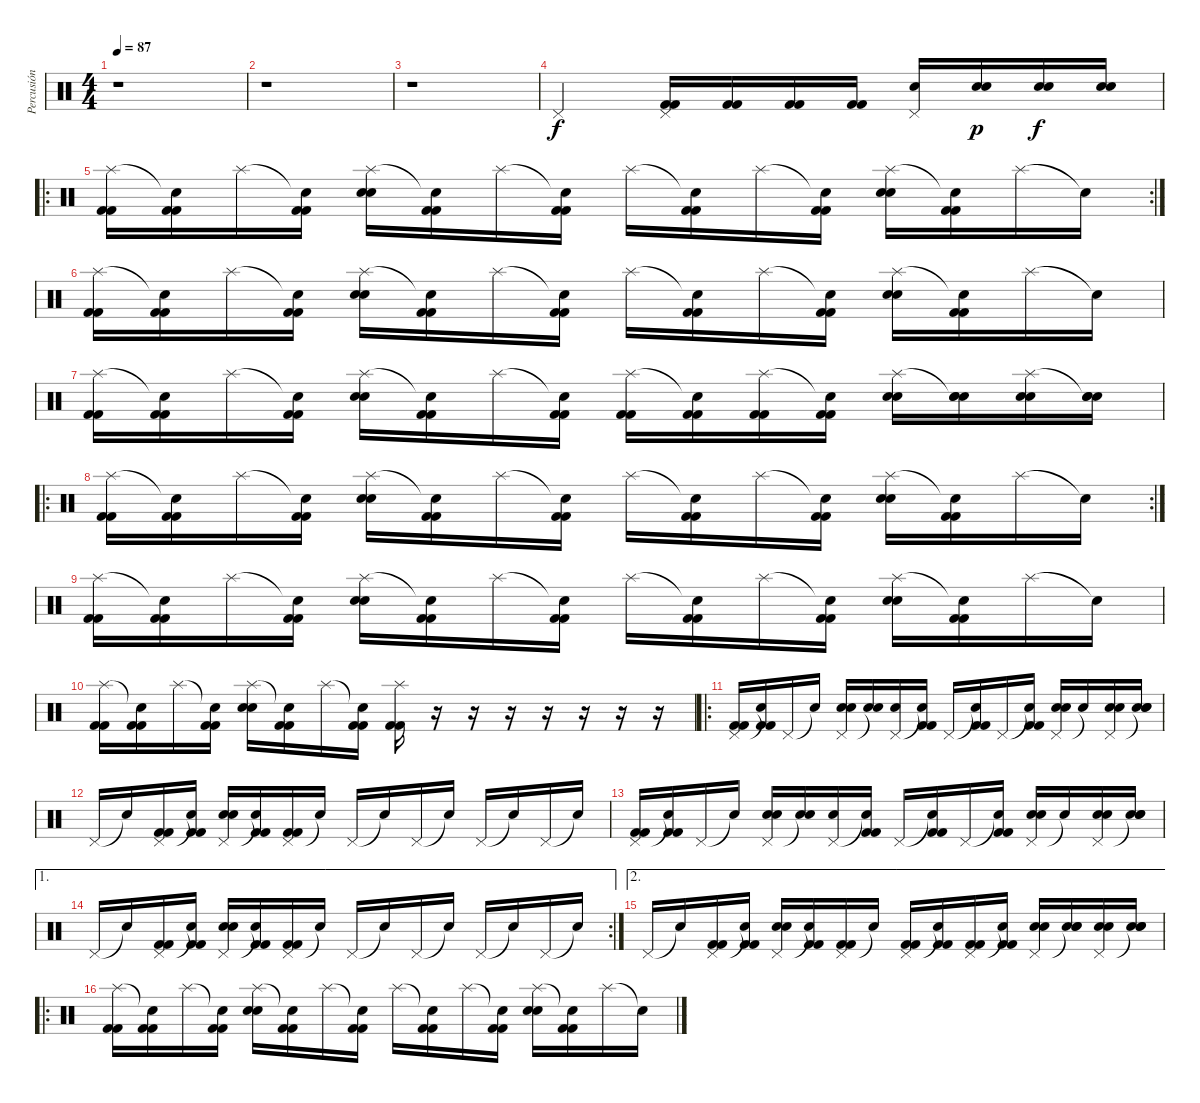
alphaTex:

\track ("Percusión" "Percusión") {instrument percussion}
\staff {score}
\articulation defaults
\ts (4 4)
\tempo 87
\clef neutral
\ks c
r.1{dy f} |
r.1 |
r.1 |
"Pedal Hi-Hat (hit)".2 ("Pedal Hi-Hat (hit)" "Kick (hit) 2" "Kick (hit) 2").16 ("Kick (hit) 2" "Kick (hit) 2").16 ("Kick (hit) 2" "Kick (hit) 2").16 ("Kick (hit) 2" "Kick (hit) 2").16 ("Pedal Hi-Hat (hit)" "Electric Snare (hit)").16 ("Electric Snare (hit)" "Electric Snare (hit)").16{dy p} ("Electric Snare (hit)" "Electric Snare (hit)").16{dy f} ("Electric Snare (hit)" "Electric Snare (hit)").16 |
\ro
\rc 2
("Splash (hit)" "Kick (hit) 2" "Kick (hit) 2").16 ("Snare (hit)"{t} "Kick (hit) 2" "Kick (hit) 2").16 "Splash (hit)".16 ("Snare (hit)"{t} "Kick (hit) 2" "Kick (hit) 2").16 ("Splash (hit)" "Electric Snare (hit)" "Electric Snare (hit)").16 ("Snare (hit)"{t} "Kick (hit) 2" "Kick (hit) 2").16 "Splash (hit)".16 ("Snare (hit)"{t} "Kick (hit) 2" "Kick (hit) 2").16 "Splash (hit)".16 ("Snare (hit)"{t} "Kick (hit) 2" "Kick (hit) 2").16 "Splash (hit)".16 ("Snare (hit)"{t} "Kick (hit) 2" "Kick (hit) 2").16 ("Splash (hit)" "Electric Snare (hit)" "Electric Snare (hit)").16 ("Snare (hit)"{t} "Kick (hit) 2" "Kick (hit) 2").16 "Splash (hit)".16 "Snare (hit)"{t}.16 |
("Splash (hit)" "Kick (hit) 2" "Kick (hit) 2").16 ("Snare (hit)"{t} "Kick (hit) 2" "Kick (hit) 2").16 "Splash (hit)".16 ("Snare (hit)"{t} "Kick (hit) 2" "Kick (hit) 2").16 ("Splash (hit)" "Electric Snare (hit)" "Electric Snare (hit)").16 ("Snare (hit)"{t} "Kick (hit) 2" "Kick (hit) 2").16 "Splash (hit)".16 ("Snare (hit)"{t} "Kick (hit) 2" "Kick (hit) 2").16 "Splash (hit)".16 ("Snare (hit)"{t} "Kick (hit) 2" "Kick (hit) 2").16 "Splash (hit)".16 ("Snare (hit)"{t} "Kick (hit) 2" "Kick (hit) 2").16 ("Splash (hit)" "Electric Snare (hit)" "Electric Snare (hit)").16 ("Snare (hit)"{t} "Kick (hit) 2" "Kick (hit) 2").16 "Splash (hit)".16 "Snare (hit)"{t}.16 |
("Splash (hit)" "Kick (hit) 2" "Kick (hit) 2").16 ("Snare (hit)"{t} "Kick (hit) 2" "Kick (hit) 2").16 "Splash (hit)".16 ("Snare (hit)"{t} "Kick (hit) 2" "Kick (hit) 2").16 ("Splash (hit)" "Electric Snare (hit)" "Electric Snare (hit)").16 ("Snare (hit)"{t} "Kick (hit) 2" "Kick (hit) 2").16 "Splash (hit)".16 ("Snare (hit)"{t} "Kick (hit) 2" "Kick (hit) 2").16 ("Splash (hit)" "Kick (hit) 2" "Kick (hit) 2").16 ("Snare (hit)"{t} "Kick (hit) 2" "Kick (hit) 2").16 ("Splash (hit)" "Kick (hit) 2" "Kick (hit) 2").16 ("Snare (hit)"{t} "Kick (hit) 2" "Kick (hit) 2").16 ("Splash (hit)" "Electric Snare (hit)" "Electric Snare (hit)").16 ("Snare (hit)"{t} "Electric Snare (hit)" "Electric Snare (hit)").16 ("Splash (hit)" "Electric Snare (hit)" "Electric Snare (hit)").16 ("Snare (hit)"{t} "Electric Snare (hit)" "Electric Snare (hit)").16 |
\ro
\rc 2
("Splash (hit)" "Kick (hit) 2" "Kick (hit) 2").16 ("Snare (hit)"{t} "Kick (hit) 2" "Kick (hit) 2").16 "Splash (hit)".16 ("Snare (hit)"{t} "Kick (hit) 2" "Kick (hit) 2").16 ("Splash (hit)" "Electric Snare (hit)" "Electric Snare (hit)").16 ("Snare (hit)"{t} "Kick (hit) 2" "Kick (hit) 2").16 "Splash (hit)".16 ("Snare (hit)"{t} "Kick (hit) 2" "Kick (hit) 2").16 "Splash (hit)".16 ("Snare (hit)"{t} "Kick (hit) 2" "Kick (hit) 2").16 "Splash (hit)".16 ("Snare (hit)"{t} "Kick (hit) 2" "Kick (hit) 2").16 ("Splash (hit)" "Electric Snare (hit)" "Electric Snare (hit)").16 ("Snare (hit)"{t} "Kick (hit) 2" "Kick (hit) 2").16 "Splash (hit)".16 "Snare (hit)"{t}.16 |
("Splash (hit)" "Kick (hit) 2" "Kick (hit) 2").16 ("Snare (hit)"{t} "Kick (hit) 2" "Kick (hit) 2").16 "Splash (hit)".16 ("Snare (hit)"{t} "Kick (hit) 2" "Kick (hit) 2").16 ("Splash (hit)" "Electric Snare (hit)" "Electric Snare (hit)").16 ("Snare (hit)"{t} "Kick (hit) 2" "Kick (hit) 2").16 "Splash (hit)".16 ("Snare (hit)"{t} "Kick (hit) 2" "Kick (hit) 2").16 "Splash (hit)".16 ("Snare (hit)"{t} "Kick (hit) 2" "Kick (hit) 2").16 "Splash (hit)".16 ("Snare (hit)"{t} "Kick (hit) 2" "Kick (hit) 2").16 ("Splash (hit)" "Electric Snare (hit)" "Electric Snare (hit)").16 ("Snare (hit)"{t} "Kick (hit) 2" "Kick (hit) 2").16 "Splash (hit)".16 "Snare (hit)"{t}.16 |
("Splash (hit)" "Kick (hit) 2" "Kick (hit) 2").16 ("Snare (hit)"{t} "Kick (hit) 2" "Kick (hit) 2").16 "Splash (hit)".16 ("Snare (hit)"{t} "Kick (hit) 2" "Kick (hit) 2").16 ("Splash (hit)" "Electric Snare (hit)" "Electric Snare (hit)").16 ("Snare (hit)"{t} "Kick (hit) 2" "Kick (hit) 2").16 "Splash (hit)".16 ("Snare (hit)"{t} "Kick (hit) 2" "Kick (hit) 2").16 ("Splash (hit)" "Kick (hit) 2" "Kick (hit) 2").16 r.16 r.16 r.16 r.16 r.16 r.16 r.16 |
\ro
("Pedal Hi-Hat (hit)" "Kick (hit) 2" "Kick (hit) 2").16 ("Snare (hit)"{t} "Kick (hit) 2" "Kick (hit) 2").16 "Pedal Hi-Hat (hit)".16 "Snare (hit)"{t}.16 ("Pedal Hi-Hat (hit)" "Electric Snare (hit)" "Electric Snare (hit)").16 ("Snare (hit)"{t} "Electric Snare (hit)").16 ("Pedal Hi-Hat (hit)" "Electric Snare (hit)").16 ("Snare (hit)"{t} "Kick (hit) 2" "Kick (hit) 2").16 "Pedal Hi-Hat (hit)".16 ("Snare (hit)"{t} "Kick (hit) 2" "Kick (hit) 2").16 "Pedal Hi-Hat (hit)".16 ("Snare (hit)"{t} "Kick (hit) 2" "Kick (hit) 2").16 ("Pedal Hi-Hat (hit)" "Electric Snare (hit)" "Electric Snare (hit)").16 "Snare (hit)"{t}.16 ("Pedal Hi-Hat (hit)" "Electric Snare (hit)" "Electric Snare (hit)").16 ("Snare (hit)"{t} "Electric Snare (hit)" "Electric Snare (hit)").16 |
"Pedal Hi-Hat (hit)".16 "Snare (hit)"{t}.16 ("Pedal Hi-Hat (hit)" "Kick (hit) 2" "Kick (hit) 2").16 ("Snare (hit)"{t} "Kick (hit) 2" "Kick (hit) 2").16 ("Pedal Hi-Hat (hit)" "Electric Snare (hit)" "Electric Snare (hit)").16 ("Snare (hit)"{t} "Kick (hit) 2" "Kick (hit) 2").16 ("Pedal Hi-Hat (hit)" "Kick (hit) 2" "Kick (hit) 2").16 "Snare (hit)"{t}.16 "Pedal Hi-Hat (hit)".16 "Snare (hit)"{t}.16 "Pedal Hi-Hat (hit)".16 "Snare (hit)"{t}.16 "Pedal Hi-Hat (hit)".16 "Snare (hit)"{t}.16 "Pedal Hi-Hat (hit)".16 "Snare (hit)"{t}.16 |
("Pedal Hi-Hat (hit)" "Kick (hit) 2" "Kick (hit) 2").16 ("Snare (hit)"{t} "Kick (hit) 2" "Kick (hit) 2").16 "Pedal Hi-Hat (hit)".16 "Snare (hit)"{t}.16 ("Pedal Hi-Hat (hit)" "Electric Snare (hit)" "Electric Snare (hit)").16 ("Snare (hit)"{t} "Electric Snare (hit)").16 ("Pedal Hi-Hat (hit)" "Electric Snare (hit)").16 ("Snare (hit)"{t} "Kick (hit) 2" "Kick (hit) 2").16 "Pedal Hi-Hat (hit)".16 ("Snare (hit)"{t} "Kick (hit) 2" "Kick (hit) 2").16 "Pedal Hi-Hat (hit)".16 ("Snare (hit)"{t} "Kick (hit) 2" "Kick (hit) 2").16 ("Pedal Hi-Hat (hit)" "Electric Snare (hit)" "Electric Snare (hit)").16 "Snare (hit)"{t}.16 ("Pedal Hi-Hat (hit)" "Electric Snare (hit)" "Electric Snare (hit)").16 ("Snare (hit)"{t} "Electric Snare (hit)" "Electric Snare (hit)").16 |
\ae 1
\rc 2 "Pedal Hi-Hat (hit)".16 "Snare (hit)"{t}.16
("Pedal Hi-Hat (hit)" "Kick (hit) 2" "Kick (hit) 2").16 ("Snare (hit)"{t} "Kick (hit) 2" "Kick (hit) 2").16 ("Pedal Hi-Hat (hit)" "Electric Snare (hit)" "Electric Snare (hit)").16 ("Snare (hit)"{t} "Kick (hit) 2" "Kick (hit) 2").16 ("Pedal Hi-Hat (hit)" "Kick (hit) 2" "Kick (hit) 2").16 "Snare (hit)"{t}.16 "Pedal Hi-Hat (hit)".16 "Snare (hit)"{t}.16 "Pedal Hi-Hat (hit)".16 "Snare (hit)"{t}.16 "Pedal Hi-Hat (hit)".16 "Snare (hit)"{t}.16 "Pedal Hi-Hat (hit)".16 "Snare (hit)"{t}.16 |
\ae 2 "Pedal Hi-Hat (hit)".16 "Snare (hit)"{t}.16
("Pedal Hi-Hat (hit)" "Kick (hit) 2" "Kick (hit) 2").16 ("Snare (hit)"{t} "Kick (hit) 2" "Kick (hit) 2").16 ("Pedal Hi-Hat (hit)" "Electric Snare (hit)" "Electric Snare (hit)").16 ("Snare (hit)"{t} "Kick (hit) 2" "Kick (hit) 2").16 ("Pedal Hi-Hat (hit)" "Kick (hit) 2" "Kick (hit) 2").16 "Snare (hit)"{t}.16 ("Pedal Hi-Hat (hit)" "Kick (hit) 2" "Kick (hit) 2").16 ("Snare (hit)"{t} "Kick (hit) 2" "Kick (hit) 2").16 ("Pedal Hi-Hat (hit)" "Kick (hit) 2" "Kick (hit) 2").16 ("Snare (hit)"{t} "Kick (hit) 2" "Kick (hit) 2").16 ("Pedal Hi-Hat (hit)" "Electric Snare (hit)" "Electric Snare (hit)").16 ("Snare (hit)"{t} "Electric Snare (hit)" "Electric Snare (hit)").16 ("Pedal Hi-Hat (hit)" "Electric Snare (hit)" "Electric Snare (hit)").16 ("Snare (hit)"{t} "Electric Snare (hit)" "Electric Snare (hit)").16 |
\ro
("Splash (hit)" "Kick (hit) 2" "Kick (hit) 2").16 ("Snare (hit)"{t} "Kick (hit) 2" "Kick (hit) 2").16 "Splash (hit)".16 ("Snare (hit)"{t} "Kick (hit) 2" "Kick (hit) 2").16 ("Splash (hit)" "Electric Snare (hit)" "Electric Snare (hit)").16 ("Snare (hit)"{t} "Kick (hit) 2" "Kick (hit) 2").16 "Splash (hit)".16 ("Snare (hit)"{t} "Kick (hit) 2" "Kick (hit) 2").16 "Splash (hit)".16 ("Snare (hit)"{t} "Kick (hit) 2" "Kick (hit) 2").16 "Splash (hit)".16 ("Snare (hit)"{t} "Kick (hit) 2" "Kick (hit) 2").16 ("Splash (hit)" "Electric Snare (hit)" "Electric Snare (hit)").16 ("Snare (hit)"{t} "Kick (hit) 2" "Kick (hit) 2").16 "Splash (hit)".16 "Snare (hit)"{t}.16
